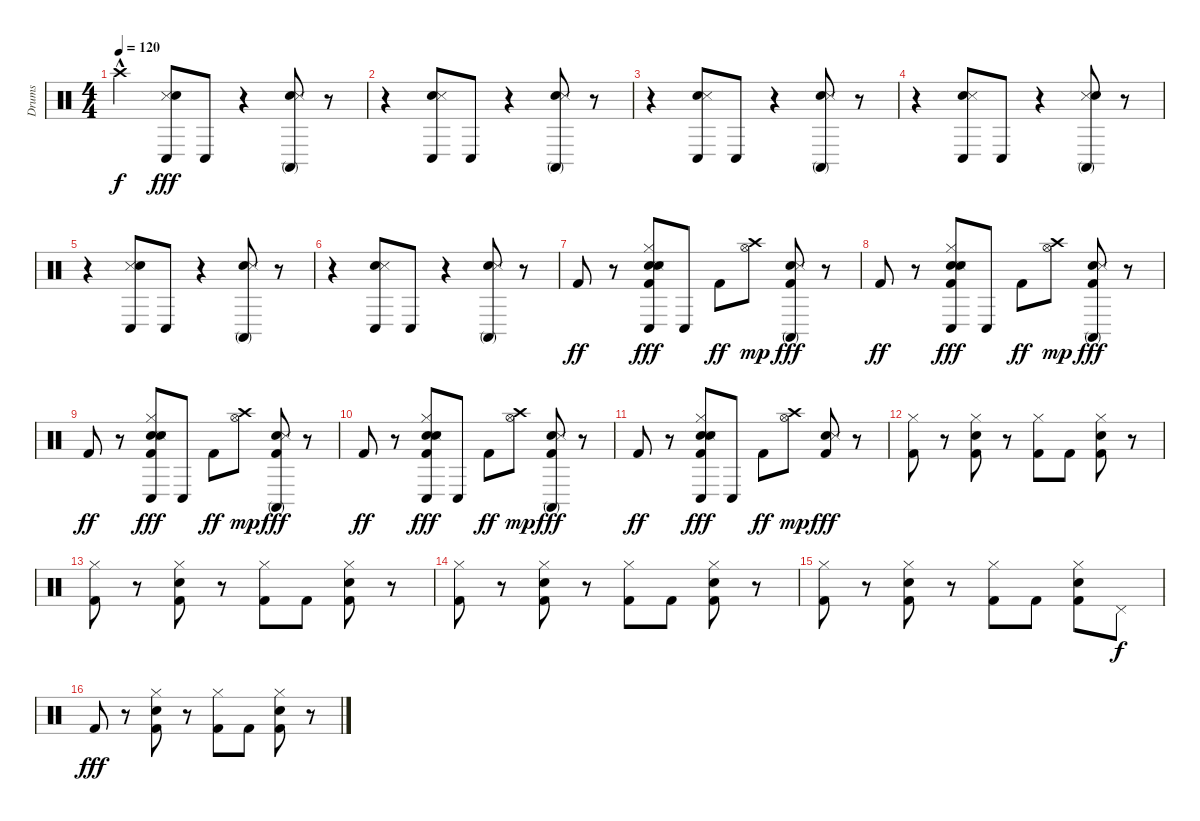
\track ("Drums" "Drums") {instrument percussion}
\staff {score}
\articulation defaults
\ts (4 4)
\tempo 120
\clef neutral
\ks c "Crash high (hit)"{hac}.4{dy f}
("Snare (side stick) 3" "Hand Clap (hit)" "Conga low (hit)").8{dy fff} "Conga low (hit)".8 r.4 ("Hand Clap (hit)" "Snare (side stick) 3" "Conga high (mute)").8 r.8 |
r.4 ("Hand Clap (hit)" "Snare (side stick) 3" "Conga low (hit)").8 "Conga low (hit)".8 r.4 ("Hand Clap (hit)" "Snare (side stick) 3" "Conga high (mute)").8 r.8 |
r.4 ("Hand Clap (hit)" "Snare (side stick) 3" "Conga low (hit)").8 "Conga low (hit)".8 r.4 ("Hand Clap (hit)" "Snare (side stick) 3" "Conga high (mute)").8 r.8 |
r.4 ("Hand Clap (hit)" "Snare (side stick) 3" "Conga low (hit)").8 "Conga low (hit)".8 r.4 ("Snare (side stick) 3" "Hand Clap (hit)" "Conga high (mute)").8 r.8 |
r.4 ("Snare (side stick) 3" "Hand Clap (hit)" "Conga low (hit)").8 "Conga low (hit)".8 r.4 ("Hand Clap (hit)" "Snare (side stick) 3" "Conga high (mute)").8 r.8 |
r.4 ("Hand Clap (hit)" "Snare (side stick) 3" "Conga low (hit)").8 "Conga low (hit)".8 r.4 ("Hand Clap (hit)" "Snare (side stick) 3" "Conga high (mute)").8 r.8 |
"Kick (hit) 2".8{dy ff} r.8 ("Kick (hit) 2" "Electric Snare (hit)" "Hi-Hat (closed)" "Hand Clap (hit)" "Snare (side stick) 3" "Conga low (hit)").8{dy fff} "Conga low (hit)".8 "Kick (hit) 2".8{dy ff} ("Hi-Hat (open)" "Crash high (hit)").8{dy mp} ("Kick (hit) 2" "Hand Clap (hit)" "Snare (side stick) 3" "Conga high (mute)").8{dy fff} r.8 |
"Kick (hit) 2".8{dy ff} r.8 ("Kick (hit) 2" "Electric Snare (hit)" "Hi-Hat (closed)" "Hand Clap (hit)" "Snare (side stick) 3" "Conga low (hit)").8{dy fff} "Conga low (hit)".8 "Kick (hit) 2".8{dy ff} ("Hi-Hat (open)" "Crash high (hit)").8{dy mp} ("Kick (hit) 2" "Hand Clap (hit)" "Snare (side stick) 3" "Conga high (mute)").8{dy fff} r.8 |
"Kick (hit) 2".8{dy ff} r.8 ("Kick (hit) 2" "Electric Snare (hit)" "Hi-Hat (closed)" "Snare (side stick) 3" "Hand Clap (hit)" "Conga low (hit)").8{dy fff} "Conga low (hit)".8 "Kick (hit) 2".8{dy ff} ("Hi-Hat (open)" "Crash high (hit)").8{dy mp} ("Kick (hit) 2" "Hand Clap (hit)" "Snare (side stick) 3" "Conga high (mute)").8{dy fff} r.8 |
"Kick (hit) 2".8{dy ff} r.8 ("Kick (hit) 2" "Electric Snare (hit)" "Hi-Hat (closed)" "Hand Clap (hit)" "Snare (side stick) 3" "Conga low (hit)").8{dy fff} "Conga low (hit)".8 "Kick (hit) 2".8{dy ff} ("Hi-Hat (open)" "Crash high (hit)").8{dy mp} ("Kick (hit) 2" "Hand Clap (hit)" "Snare (side stick) 3" "Conga high (mute)").8{dy fff} r.8 |
"Kick (hit) 2".8{dy ff} r.8 ("Kick (hit) 2" "Electric Snare (hit)" "Hi-Hat (closed)" "Hand Clap (hit)" "Snare (side stick) 3" "Conga low (hit)").8{dy fff} "Conga low (hit)".8 "Kick (hit) 2".8{dy ff} ("Hi-Hat (open)" "Crash high (hit)").8{dy mp} ("Kick (hit) 2" "Hand Clap (hit)" "Snare (side stick) 3").8{dy fff} r.8 |
("Kick (hit) 2" "Hi-Hat (closed)").8 r.8 ("Kick (hit) 2" "Electric Snare (hit)" "Hi-Hat (closed)").8 r.8 ("Kick (hit) 2" "Hi-Hat (closed)").8 "Kick (hit) 2".8 ("Kick (hit) 2" "Electric Snare (hit)" "Hi-Hat (closed)").8 r.8 |
("Kick (hit) 2" "Hi-Hat (closed)").8 r.8 ("Kick (hit) 2" "Electric Snare (hit)" "Hi-Hat (closed)").8 r.8 ("Kick (hit) 2" "Hi-Hat (closed)").8 "Kick (hit) 2".8 ("Kick (hit) 2" "Electric Snare (hit)" "Hi-Hat (closed)").8 r.8 |
("Kick (hit) 2" "Hi-Hat (closed)").8 r.8 ("Kick (hit) 2" "Electric Snare (hit)" "Hi-Hat (closed)").8 r.8 ("Kick (hit) 2" "Hi-Hat (closed)").8 "Kick (hit) 2".8 ("Kick (hit) 2" "Electric Snare (hit)" "Hi-Hat (closed)").8 r.8 |
("Kick (hit) 2" "Hi-Hat (closed)").8 r.8 ("Kick (hit) 2" "Electric Snare (hit)" "Hi-Hat (closed)").8 r.8 ("Kick (hit) 2" "Hi-Hat (closed)").8 "Kick (hit) 2".8 ("Kick (hit) 2" "Electric Snare (hit)" "Hi-Hat (closed)").8 "Pedal Hi-Hat (hit)".8{dy f} |
"Kick (hit) 2".8{dy fff} r.8 ("Kick (hit) 2" "Electric Snare (hit)" "Hi-Hat (closed)").8 r.8 ("Kick (hit) 2" "Hi-Hat (closed)").8 "Kick (hit) 2".8 ("Kick (hit) 2" "Electric Snare (hit)" "Hi-Hat (closed)").8 r.8
